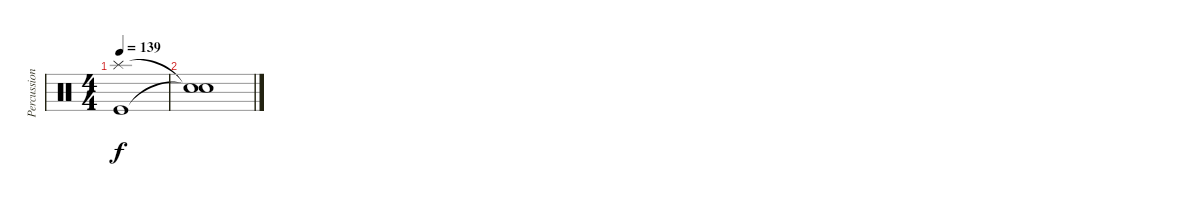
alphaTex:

\track ("Percussion" "Percussion") {instrument percussion}
\staff {score}
\articulation defaults
\ts (4 4)
\tempo 139
\clef neutral
\ks c
("Splash (hit)" "Kick (hit)").1{dy f} |
("Snare (hit)"{t} "Snare (hit)"{t}).1
